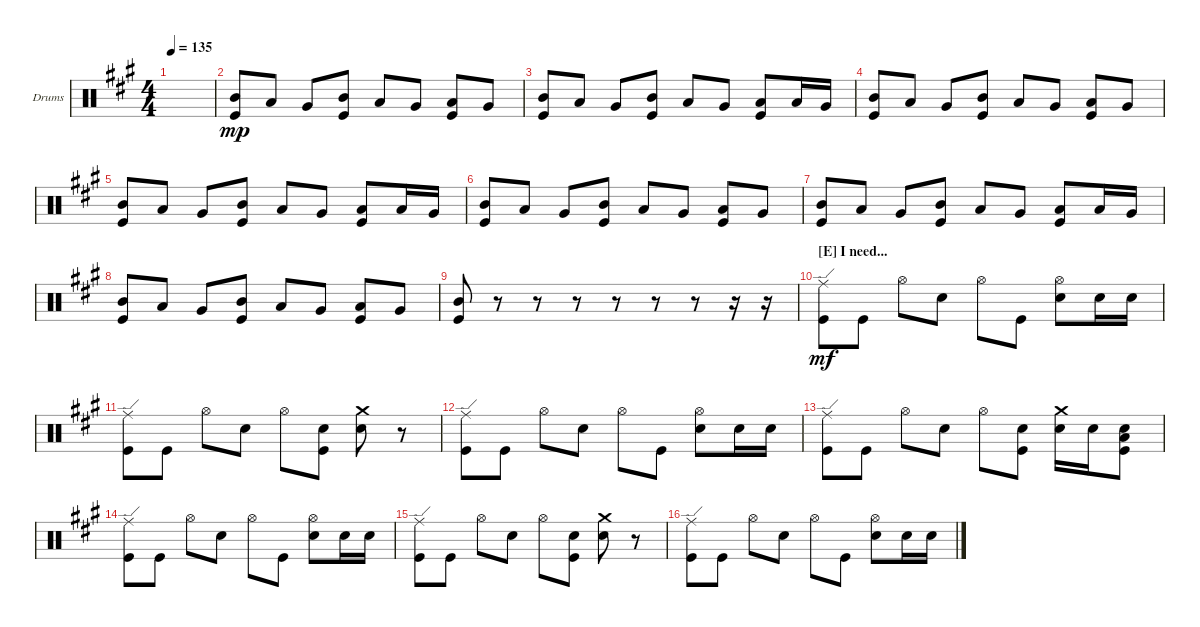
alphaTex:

\defaultSystemsLayout 4
\bracketExtendMode groupsimilarinstruments
\firstSystemTrackNameOrientation horizontal
\otherSystemsTrackNameOrientation horizontal
\track ("Drums" "Drums") {instrument percussion}
\staff {score}
\articulation defaults
\ts (4 4)
\tempo 135
\clef neutral
\ks f#minor
|
("Kick (hit)" "Mid Tom (hit)").8{dy mp} "Low Tom (hit)".8 "Very Low Tom (hit)".8 ("Kick (hit)" "Mid Tom (hit)").8 "Low Tom (hit)".8 "Very Low Tom (hit)".8 ("Kick (hit)" "Low Tom (hit)").8 "Very Low Tom (hit)".8 |
("Kick (hit)" "Mid Tom (hit)").8 "Low Tom (hit)".8 "Very Low Tom (hit)".8 ("Kick (hit)" "Mid Tom (hit)").8 "Low Tom (hit)".8 "Very Low Tom (hit)".8 ("Kick (hit)" "Low Tom (hit)").8 "Low Tom (hit)".16 "Very Low Tom (hit)".16 |
("Kick (hit)" "Mid Tom (hit)").8 "Low Tom (hit)".8 "Very Low Tom (hit)".8 ("Kick (hit)" "Mid Tom (hit)").8 "Low Tom (hit)".8 "Very Low Tom (hit)".8 ("Kick (hit)" "Low Tom (hit)").8 "Very Low Tom (hit)".8 |
("Kick (hit)" "Mid Tom (hit)").8 "Low Tom (hit)".8 "Very Low Tom (hit)".8 ("Kick (hit)" "Mid Tom (hit)").8 "Low Tom (hit)".8 "Very Low Tom (hit)".8 ("Kick (hit)" "Low Tom (hit)").8 "Low Tom (hit)".16 "Very Low Tom (hit)".16 |
("Kick (hit)" "Mid Tom (hit)").8 "Low Tom (hit)".8 "Very Low Tom (hit)".8 ("Kick (hit)" "Mid Tom (hit)").8 "Low Tom (hit)".8 "Very Low Tom (hit)".8 ("Kick (hit)" "Low Tom (hit)").8 "Very Low Tom (hit)".8 |
("Kick (hit)" "Mid Tom (hit)").8 "Low Tom (hit)".8 "Very Low Tom (hit)".8 ("Kick (hit)" "Mid Tom (hit)").8 "Low Tom (hit)".8 "Very Low Tom (hit)".8 ("Kick (hit)" "Low Tom (hit)").8 "Low Tom (hit)".16 "Very Low Tom (hit)".16 |
("Kick (hit)" "Mid Tom (hit)").8 "Low Tom (hit)".8 "Very Low Tom (hit)".8 ("Kick (hit)" "Mid Tom (hit)").8 "Low Tom (hit)".8 "Very Low Tom (hit)".8 ("Kick (hit)" "Low Tom (hit)").8 "Very Low Tom (hit)".8 |
("Kick (hit)" "Mid Tom (hit)").8 r.8 r.8 r.8 r.8 r.8 r.8 r.16 r.16 |
\section ("E" "I need...")
("Ride (edge)" "Kick (hit)").8{dy mf} "Kick (hit)".8 "Hi-Hat (open)".8 "Snare (hit) 2".8 "Hi-Hat (open)".8 "Kick (hit)".8 ("Hi-Hat (open)" "Snare (hit) 2").8 "Snare (hit) 2".16 "Snare (hit) 2".16 |
("Ride (edge)" "Kick (hit)").8 "Kick (hit)".8 "Hi-Hat (open)".8 "Snare (hit) 2".8 "Hi-Hat (open)".8 ("Snare (hit) 2" "Kick (hit)").8 ("Crash medium (hit)" "Snare (hit) 2").8 r.8 |
("Ride (edge)" "Kick (hit)").8 "Kick (hit)".8 "Hi-Hat (open)".8 "Snare (hit) 2".8 "Hi-Hat (open)".8 "Kick (hit)".8 ("Hi-Hat (open)" "Snare (hit) 2").8 "Snare (hit) 2".16 "Snare (hit) 2".16 |
("Ride (edge)" "Kick (hit)").8 "Kick (hit)".8 "Hi-Hat (open)".8 "Snare (hit) 2".8 "Hi-Hat (open)".8 ("Snare (hit) 2" "Kick (hit)").8 ("Crash medium (hit)" "Snare (hit) 2").16 "Snare (hit) 2".16 ("Low Tom (hit)" "Snare (hit) 2" "Kick (hit)").8 |
("Ride (edge)" "Kick (hit)").8 "Kick (hit)".8 "Hi-Hat (open)".8 "Snare (hit) 2".8 "Hi-Hat (open)".8 "Kick (hit)".8 ("Hi-Hat (open)" "Snare (hit) 2").8 "Snare (hit) 2".16 "Snare (hit) 2".16 |
("Ride (edge)" "Kick (hit)").8 "Kick (hit)".8 "Hi-Hat (open)".8 "Snare (hit) 2".8 "Hi-Hat (open)".8 ("Snare (hit) 2" "Kick (hit)").8 ("Crash medium (hit)" "Snare (hit) 2").8 r.8 |
("Ride (edge)" "Kick (hit)").8 "Kick (hit)".8 "Hi-Hat (open)".8 "Snare (hit) 2".8 "Hi-Hat (open)".8 "Kick (hit)".8 ("Hi-Hat (open)" "Snare (hit) 2").8 "Snare (hit) 2".16 "Snare (hit) 2".16
